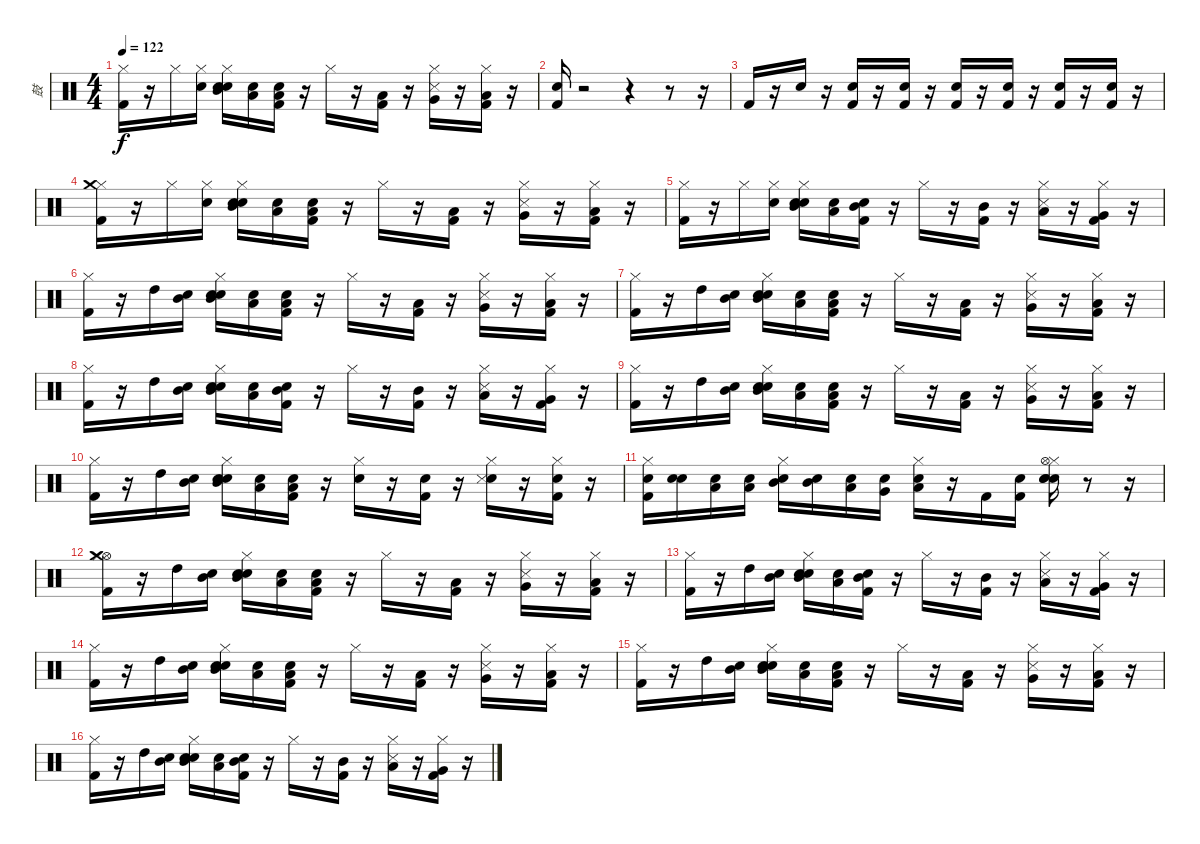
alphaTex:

\track ("鼓" "鼓") {instrument percussion}
\staff {score}
\articulation defaults
\ts (4 4)
\tempo 122
\clef neutral
\ks c
("Hi-Hat (closed)" "Kick (hit) 2").16{dy f} r.16 "Hi-Hat (closed)".16 ("Snare (hit)" "Hi-Hat (closed)").16 ("Snare (hit)" "Snare (hit) 2" "Hi-Hat (closed)" "Mid Tom (hit)").16 ("Snare (hit)" "Low Tom (hit)").16 ("Snare (hit)" "Low Tom (hit)" "Kick (hit) 2").16 r.16 "Hi-Hat (closed)".16 r.16 ("Kick (hit) 2" "Low Tom (hit)").16 r.16 ("Hi-Hat (closed)" "Very Low Tom (hit)" "Snare (side stick) 3").16 r.16 ("Kick (hit) 2" "Low Floor Tom (hit)" "Hi-Hat (closed)").16 r.16 |
("Kick (hit) 2" "Electric Snare (hit)").16 r.2 r.4 r.8 r.16 |
"Kick (hit) 2".16 r.16 "Snare (hit) 2".16 r.16 ("Snare (hit) 2" "Kick (hit) 2").16 r.16 ("Kick (hit) 2" "Snare (hit) 2").16 r.16 ("Snare (hit) 2" "Kick (hit) 2").16 r.16 ("Snare (hit) 2" "Kick (hit) 2").16 r.16 ("Snare (hit) 2" "Kick (hit) 2").16 r.16 ("Snare (hit) 2" "Kick (hit) 2").16 r.16 |
("Kick (hit) 2" "Hi-Hat (closed)" "Crash medium (hit)").16 r.16 "Hi-Hat (closed)".16 ("Snare (hit)" "Hi-Hat (closed)").16 ("Snare (hit)" "Snare (hit) 2" "Mid Tom (hit)" "Hi-Hat (closed)").16 ("Snare (hit)" "Low Tom (hit)").16 ("Snare (hit)" "Low Tom (hit)" "Kick (hit) 2").16 r.16 "Hi-Hat (closed)".16 r.16 ("Kick (hit) 2" "Low Tom (hit)").16 r.16 ("Very Low Tom (hit)" "Hi-Hat (closed)" "Snare (side stick) 3").16 r.16 ("Kick (hit) 2" "Low Floor Tom (hit)" "Hi-Hat (closed)").16 r.16 |
("Kick (hit) 2" "Hi-Hat (closed)").16 r.16 "Hi-Hat (closed)".16 ("Snare (hit)" "Hi-Hat (closed)").16 ("Snare (hit)" "Snare (hit) 2" "Hi-Hat (closed)" "Mid Tom (hit)").16 ("Snare (hit)" "Low Tom (hit)").16 ("Snare (hit)" "Kick (hit) 2" "Mid Tom (hit)").16 r.16 "Hi-Hat (closed)".16 r.16 ("Kick (hit) 2" "Mid Tom (hit)").16 r.16 ("Hi-Hat (closed)" "Low Tom (hit)" "Snare (side stick) 3").16 r.16 ("Kick (hit) 2" "Very Low Tom (hit)" "Hi-Hat (closed)").16 r.16 |
("Hi-Hat (closed)" "Kick (hit) 2").16 r.16 "High Tom (hit)".16 ("Snare (hit)" "Mid Tom (hit)").16 ("Snare (hit)" "Snare (hit) 2" "Hi-Hat (closed)" "Mid Tom (hit)").16 ("Snare (hit)" "Low Tom (hit)").16 ("Snare (hit)" "Low Tom (hit)" "Kick (hit) 2").16 r.16 "Hi-Hat (closed)".16 r.16 ("Kick (hit) 2" "Low Tom (hit)").16 r.16 ("Hi-Hat (closed)" "Very Low Tom (hit)" "Snare (side stick) 3").16 r.16 ("Kick (hit) 2" "Low Floor Tom (hit)" "Hi-Hat (closed)").16 r.16 |
("Hi-Hat (closed)" "Kick (hit) 2").16 r.16 "High Tom (hit)".16 ("Snare (hit)" "Mid Tom (hit)").16 ("Snare (hit)" "Snare (hit) 2" "Hi-Hat (closed)" "Mid Tom (hit)").16 ("Snare (hit)" "Low Tom (hit)").16 ("Snare (hit)" "Low Tom (hit)" "Kick (hit) 2").16 r.16 "Hi-Hat (closed)".16 r.16 ("Kick (hit) 2" "Low Tom (hit)").16 r.16 ("Hi-Hat (closed)" "Very Low Tom (hit)" "Snare (side stick) 3").16 r.16 ("Kick (hit) 2" "Low Floor Tom (hit)" "Hi-Hat (closed)").16 r.16 |
("Kick (hit) 2" "Hi-Hat (closed)").16 r.16 "High Tom (hit)".16 ("Snare (hit)" "Mid Tom (hit)").16 ("Snare (hit)" "Snare (hit) 2" "Hi-Hat (closed)" "Mid Tom (hit)").16 ("Snare (hit)" "Low Tom (hit)").16 ("Snare (hit)" "Kick (hit) 2" "Mid Tom (hit)").16 r.16 "Hi-Hat (closed)".16 r.16 ("Kick (hit) 2" "Mid Tom (hit)").16 r.16 ("Hi-Hat (closed)" "Low Tom (hit)" "Snare (side stick) 3").16 r.16 ("Kick (hit) 2" "Very Low Tom (hit)" "Hi-Hat (closed)").16 r.16 |
("Hi-Hat (closed)" "Kick (hit) 2").16 r.16 "High Tom (hit)".16 ("Snare (hit)" "Mid Tom (hit)").16 ("Snare (hit)" "Snare (hit) 2" "Hi-Hat (closed)" "Mid Tom (hit)").16 ("Snare (hit)" "Low Tom (hit)").16 ("Snare (hit)" "Low Tom (hit)" "Kick (hit) 2").16 r.16 "Hi-Hat (closed)".16 r.16 ("Kick (hit) 2" "Low Tom (hit)").16 r.16 ("Hi-Hat (closed)" "Very Low Tom (hit)" "Snare (side stick) 3").16 r.16 ("Kick (hit) 2" "Low Floor Tom (hit)" "Hi-Hat (closed)").16 r.16 |
("Hi-Hat (closed)" "Kick (hit) 2").16 r.16 "High Tom (hit)".16 ("Snare (hit)" "Mid Tom (hit)").16 ("Snare (hit)" "Snare (hit) 2" "Hi-Hat (closed)" "Mid Tom (hit)").16 ("Snare (hit)" "Low Tom (hit)").16 ("Snare (hit)" "Low Tom (hit)" "Kick (hit) 2").16 r.16 ("Electric Snare (hit)" "Hi-Hat (closed)").16 r.16 ("Electric Snare (hit)" "Kick (hit) 2").16 r.16 ("Electric Snare (hit)" "Hi-Hat (closed)" "Snare (side stick) 3").16 r.16 ("Electric Snare (hit)" "Kick (hit) 2" "Hi-Hat (closed)").16 r.16 |
("Electric Snare (hit)" "Hi-Hat (closed)" "Kick (hit) 2").16 ("Snare (hit)" "Electric Snare (hit)").16 ("Snare (hit)" "Low Tom (hit)").16 ("Snare (hit)" "Low Tom (hit)").16 ("Snare (hit)" "Hi-Hat (closed)" "Mid Tom (hit)").16 ("Snare (hit)" "Mid Tom (hit)").16 ("Snare (hit)" "Low Tom (hit)").16 ("Snare (hit)" "Very Low Tom (hit)").16 ("Snare (hit)" "Low Floor Tom (hit)" "Hi-Hat (closed)").16 r.16 "Kick (hit) 2".16 ("Snare (hit)" "Kick (hit) 2").16 ("Snare (hit)" "Hi-Hat (closed)" "Snare (hit) 2" "Electric Snare (hit)" "Hi-Hat (open)").16 r.8 r.16 |
("Hi-Hat (open)" "Kick (hit) 2" "Hi-Hat (closed)" "Crash medium (hit)").16 r.16 "High Tom (hit)".16 ("Snare (hit)" "Mid Tom (hit)").16 ("Snare (hit)" "Snare (hit) 2" "Mid Tom (hit)" "Hi-Hat (closed)").16 ("Snare (hit)" "Low Tom (hit)").16 ("Snare (hit)" "Low Tom (hit)" "Kick (hit) 2").16 r.16 "Hi-Hat (closed)".16 r.16 ("Kick (hit) 2" "Low Tom (hit)").16 r.16 ("Very Low Tom (hit)" "Hi-Hat (closed)" "Snare (side stick) 3").16 r.16 ("Kick (hit) 2" "Low Floor Tom (hit)" "Hi-Hat (closed)").16 r.16 |
("Kick (hit) 2" "Hi-Hat (closed)").16 r.16 "High Tom (hit)".16 ("Snare (hit)" "Mid Tom (hit)").16 ("Snare (hit)" "Snare (hit) 2" "Hi-Hat (closed)" "Mid Tom (hit)").16 ("Snare (hit)" "Low Tom (hit)").16 ("Snare (hit)" "Kick (hit) 2" "Mid Tom (hit)").16 r.16 "Hi-Hat (closed)".16 r.16 ("Kick (hit) 2" "Mid Tom (hit)").16 r.16 ("Hi-Hat (closed)" "Low Tom (hit)" "Snare (side stick) 3").16 r.16 ("Kick (hit) 2" "Very Low Tom (hit)" "Hi-Hat (closed)").16 r.16 |
("Hi-Hat (closed)" "Kick (hit) 2").16 r.16 "High Tom (hit)".16 ("Snare (hit)" "Mid Tom (hit)").16 ("Snare (hit)" "Snare (hit) 2" "Hi-Hat (closed)" "Mid Tom (hit)").16 ("Snare (hit)" "Low Tom (hit)").16 ("Snare (hit)" "Low Tom (hit)" "Kick (hit) 2").16 r.16 "Hi-Hat (closed)".16 r.16 ("Kick (hit) 2" "Low Tom (hit)").16 r.16 ("Hi-Hat (closed)" "Very Low Tom (hit)" "Snare (side stick) 3").16 r.16 ("Kick (hit) 2" "Low Floor Tom (hit)" "Hi-Hat (closed)").16 r.16 |
("Hi-Hat (closed)" "Kick (hit) 2").16 r.16 "High Tom (hit)".16 ("Snare (hit)" "Mid Tom (hit)").16 ("Snare (hit)" "Snare (hit) 2" "Hi-Hat (closed)" "Mid Tom (hit)").16 ("Snare (hit)" "Low Tom (hit)").16 ("Snare (hit)" "Low Tom (hit)" "Kick (hit) 2").16 r.16 "Hi-Hat (closed)".16 r.16 ("Kick (hit) 2" "Low Tom (hit)").16 r.16 ("Hi-Hat (closed)" "Very Low Tom (hit)" "Snare (side stick) 3").16 r.16 ("Kick (hit) 2" "Low Floor Tom (hit)" "Hi-Hat (closed)").16 r.16 |
("Kick (hit) 2" "Hi-Hat (closed)").16 r.16 "High Tom (hit)".16 ("Snare (hit)" "Mid Tom (hit)").16 ("Snare (hit)" "Snare (hit) 2" "Hi-Hat (closed)" "Mid Tom (hit)").16 ("Snare (hit)" "Low Tom (hit)").16 ("Snare (hit)" "Kick (hit) 2" "Mid Tom (hit)").16 r.16 "Hi-Hat (closed)".16 r.16 ("Kick (hit) 2" "Mid Tom (hit)").16 r.16 ("Hi-Hat (closed)" "Low Tom (hit)" "Snare (side stick) 3").16 r.16 ("Kick (hit) 2" "Very Low Tom (hit)" "Hi-Hat (closed)").16 r.16
